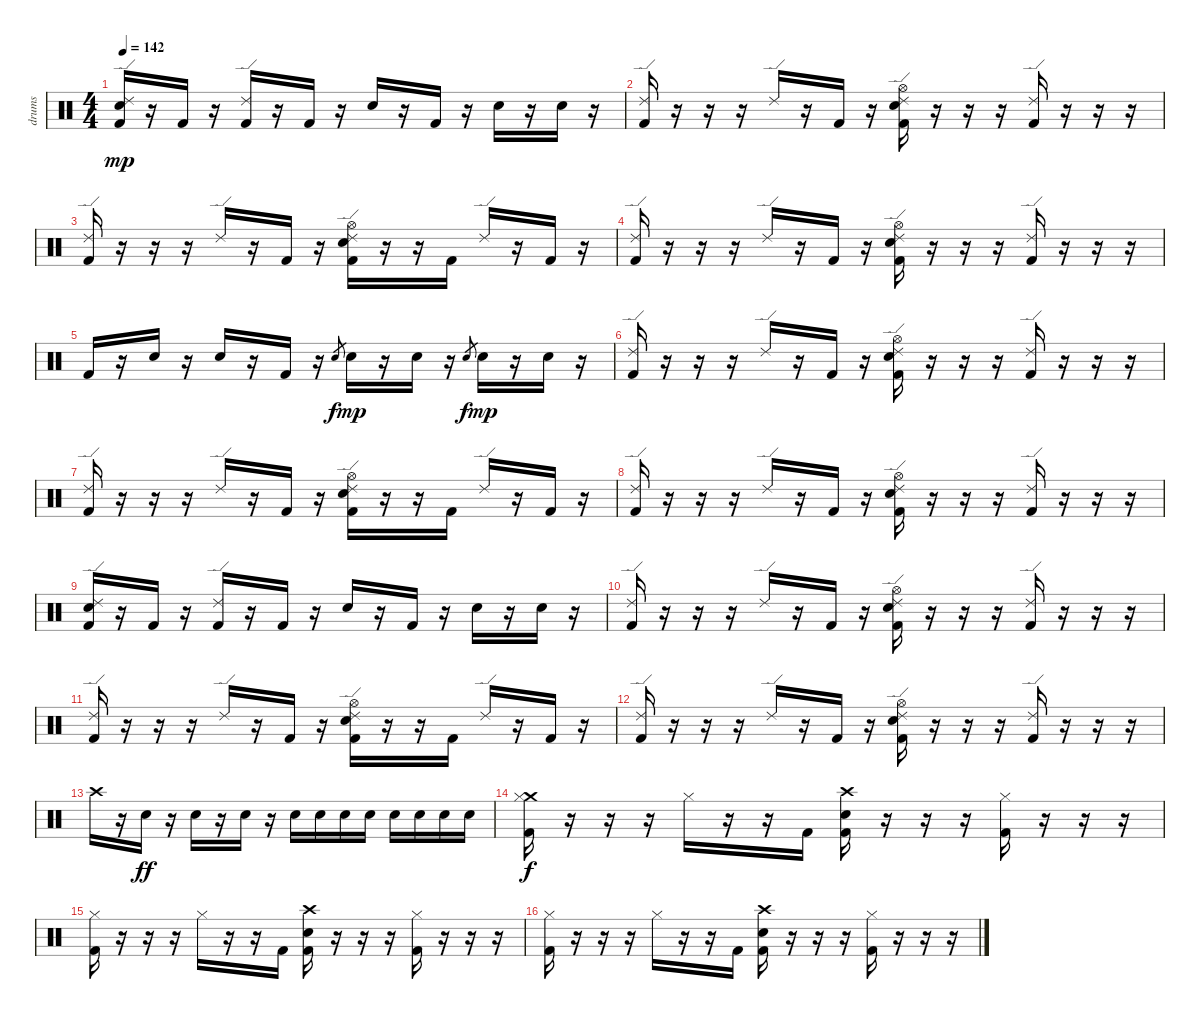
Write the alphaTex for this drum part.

\track ("drums" "drums") {instrument percussion}
\staff {score}
\articulation defaults
\ts (4 4)
\tempo 142
\clef neutral
\ks c
("Ride (edge) 2" "Electric Snare (hit)" "Kick (hit) 2").16{dy mp} r.16 "Kick (hit) 2".16 r.16 ("Ride (edge) 2" "Kick (hit) 2").16 r.16 "Kick (hit) 2".16 r.16 "Electric Snare (hit)".16 r.16 "Kick (hit) 2".16 r.16 "Snare (hit) 2".16 r.16 "Snare (hit) 2".16 r.16 |
("Ride (edge) 2" "Kick (hit) 2").16 r.16 r.16 r.16 "Ride (edge) 2".16 r.16 "Kick (hit) 2".16 r.16 ("Ride (edge) 2" "Hi-Hat (open)" "Electric Snare (hit)" "Kick (hit) 2").16 r.16 r.16 r.16 ("Ride (edge) 2" "Kick (hit) 2").16 r.16 r.16 r.16 |
("Ride (edge) 2" "Kick (hit) 2").16 r.16 r.16 r.16 "Ride (edge) 2".16 r.16 "Kick (hit) 2".16 r.16 ("Ride (edge) 2" "Hi-Hat (open)" "Electric Snare (hit)" "Kick (hit) 2").16 r.16 r.16 "Kick (hit) 2".16 "Ride (edge) 2".16 r.16 "Kick (hit) 2".16 r.16 |
("Ride (edge) 2" "Kick (hit) 2").16 r.16 r.16 r.16 "Ride (edge) 2".16 r.16 "Kick (hit) 2".16 r.16 ("Ride (edge) 2" "Hi-Hat (open)" "Electric Snare (hit)" "Kick (hit) 2").16 r.16 r.16 r.16 ("Ride (edge) 2" "Kick (hit) 2").16 r.16 r.16 r.16 |
"Kick (hit) 2".16 r.16 "Electric Snare (hit)".16 r.16 "Electric Snare (hit)".16 r.16 "Kick (hit) 2".16 r.16 "Snare (hit) 2".8{gr dy f} "Snare (hit) 2".16{dy mp} r.16 "Electric Snare (hit)".16 r.16 "Snare (hit) 2".8{gr dy f} "Snare (hit) 2".16{dy mp} r.16 "Electric Snare (hit)".16 r.16 |
("Ride (edge) 2" "Kick (hit) 2").16 r.16 r.16 r.16 "Ride (edge) 2".16 r.16 "Kick (hit) 2".16 r.16 ("Ride (edge) 2" "Hi-Hat (open)" "Electric Snare (hit)" "Kick (hit) 2").16 r.16 r.16 r.16 ("Ride (edge) 2" "Kick (hit) 2").16 r.16 r.16 r.16 |
("Ride (edge) 2" "Kick (hit) 2").16 r.16 r.16 r.16 "Ride (edge) 2".16 r.16 "Kick (hit) 2".16 r.16 ("Ride (edge) 2" "Hi-Hat (open)" "Electric Snare (hit)" "Kick (hit) 2").16 r.16 r.16 "Kick (hit) 2".16 "Ride (edge) 2".16 r.16 "Kick (hit) 2".16 r.16 |
("Ride (edge) 2" "Kick (hit) 2").16 r.16 r.16 r.16 "Ride (edge) 2".16 r.16 "Kick (hit) 2".16 r.16 ("Ride (edge) 2" "Hi-Hat (open)" "Electric Snare (hit)" "Kick (hit) 2").16 r.16 r.16 r.16 ("Ride (edge) 2" "Kick (hit) 2").16 r.16 r.16 r.16 |
("Ride (edge) 2" "Electric Snare (hit)" "Kick (hit) 2").16 r.16 "Kick (hit) 2".16 r.16 ("Ride (edge) 2" "Kick (hit) 2").16 r.16 "Kick (hit) 2".16 r.16 "Electric Snare (hit)".16 r.16 "Kick (hit) 2".16 r.16 "Snare (hit) 2".16 r.16 "Snare (hit) 2".16 r.16 |
("Ride (edge) 2" "Kick (hit) 2").16 r.16 r.16 r.16 "Ride (edge) 2".16 r.16 "Kick (hit) 2".16 r.16 ("Ride (edge) 2" "Hi-Hat (open)" "Electric Snare (hit)" "Kick (hit) 2").16 r.16 r.16 r.16 ("Ride (edge) 2" "Kick (hit) 2").16 r.16 r.16 r.16 |
("Ride (edge) 2" "Kick (hit) 2").16 r.16 r.16 r.16 "Ride (edge) 2".16 r.16 "Kick (hit) 2".16 r.16 ("Ride (edge) 2" "Hi-Hat (open)" "Electric Snare (hit)" "Kick (hit) 2").16 r.16 r.16 "Kick (hit) 2".16 "Ride (edge) 2".16 r.16 "Kick (hit) 2".16 r.16 |
("Ride (edge) 2" "Kick (hit) 2").16 r.16 r.16 r.16 "Ride (edge) 2".16 r.16 "Kick (hit) 2".16 r.16 ("Ride (edge) 2" "Hi-Hat (open)" "Electric Snare (hit)" "Kick (hit) 2").16 r.16 r.16 r.16 ("Ride (edge) 2" "Kick (hit) 2").16 r.16 r.16 r.16 |
"Crash high (hit)".16 r.16 "Electric Snare (hit)".16{dy ff} r.16 "Electric Snare (hit)".16 r.16 "Electric Snare (hit)".16 r.16 "Electric Snare (hit)".16 "Electric Snare (hit)".16 "Electric Snare (hit)".16 "Electric Snare (hit)".16 "Electric Snare (hit)".16 "Electric Snare (hit)".16 "Electric Snare (hit)".16 "Electric Snare (hit)".16 |
("Crash medium (hit)" "Hi-Hat (closed)" "Kick (hit) 2").16{dy f} r.16 r.16 r.16 "Hi-Hat (closed)".16 r.16 r.16 "Kick (hit) 2".16 ("Crash high (hit)" "Electric Snare (hit)" "Kick (hit) 2").16 r.16 r.16 r.16 ("Hi-Hat (closed)" "Kick (hit) 2").16 r.16 r.16 r.16 |
("Hi-Hat (closed)" "Kick (hit) 2").16 r.16 r.16 r.16 "Hi-Hat (closed)".16 r.16 r.16 "Kick (hit) 2".16 ("Crash high (hit)" "Electric Snare (hit)" "Kick (hit) 2").16 r.16 r.16 r.16 ("Hi-Hat (closed)" "Kick (hit) 2").16 r.16 r.16 r.16 |
("Hi-Hat (closed)" "Kick (hit) 2").16 r.16 r.16 r.16 "Hi-Hat (closed)".16 r.16 r.16 "Kick (hit) 2".16 ("Crash high (hit)" "Electric Snare (hit)" "Kick (hit) 2").16 r.16 r.16 r.16 ("Hi-Hat (closed)" "Kick (hit) 2").16 r.16 r.16 r.16
